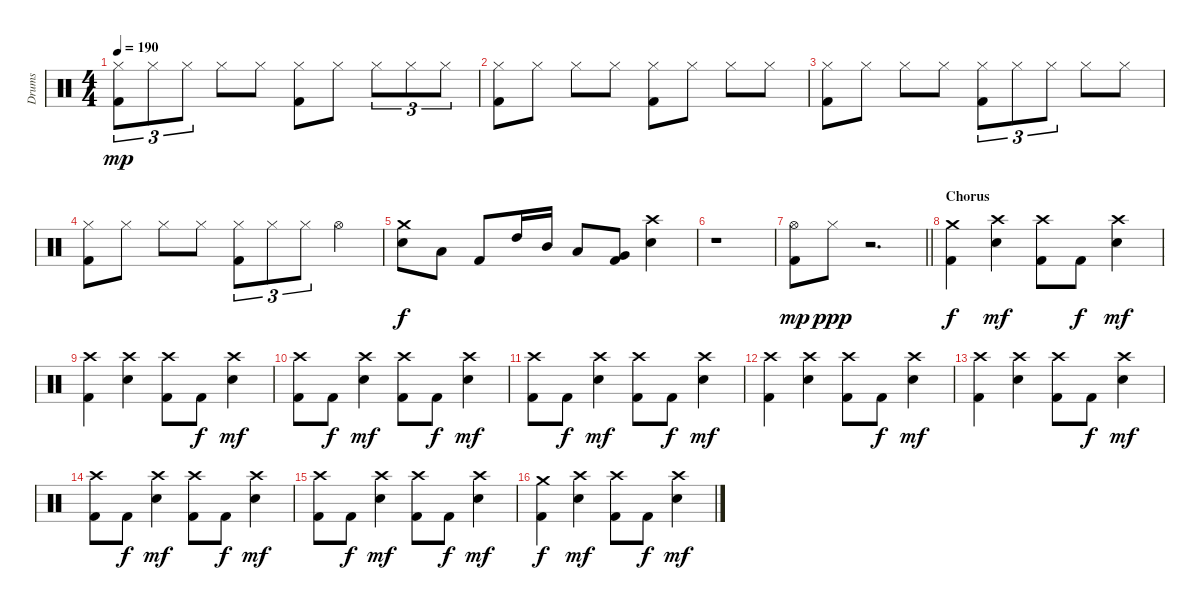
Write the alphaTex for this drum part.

\track ("Drums" "Drums") {instrument percussion}
\staff {score}
\articulation defaults
\ts (4 4)
\tempo 190
\clef neutral
\ks c
("Hi-Hat (closed)" "Kick (hit) 2").8{tu (3 2) dy mp} "Hi-Hat (closed)".8{tu (3 2)} "Hi-Hat (closed)".8{tu (3 2)} "Hi-Hat (closed)".8 "Hi-Hat (closed)".8 ("Hi-Hat (closed)" "Kick (hit) 2").8 "Hi-Hat (closed)".8 "Hi-Hat (closed)".8{tu (3 2)} "Hi-Hat (closed)".8{tu (3 2)} "Hi-Hat (closed)".8{tu (3 2)} |
("Hi-Hat (closed)" "Kick (hit) 2").8 "Hi-Hat (closed)".8 "Hi-Hat (closed)".8 "Hi-Hat (closed)".8 ("Hi-Hat (closed)" "Kick (hit) 2").8 "Hi-Hat (closed)".8 "Hi-Hat (closed)".8 "Hi-Hat (closed)".8 |
("Hi-Hat (closed)" "Kick (hit) 2").8 "Hi-Hat (closed)".8 "Hi-Hat (closed)".8 "Hi-Hat (closed)".8 ("Hi-Hat (closed)" "Kick (hit) 2").8{tu (3 2)} "Hi-Hat (closed)".8{tu (3 2)} "Hi-Hat (closed)".8{tu (3 2)} "Hi-Hat (closed)".8 "Hi-Hat (closed)".8 |
("Hi-Hat (closed)" "Kick (hit) 2").8 "Hi-Hat (closed)".8 "Hi-Hat (closed)".8 "Hi-Hat (closed)".8 ("Hi-Hat (closed)" "Kick (hit) 2").8{tu (3 2)} "Hi-Hat (closed)".8{tu (3 2)} "Hi-Hat (closed)".8{tu (3 2)} "Hi-Hat (open)".4 |
("Crash medium (hit)" "Snare (hit) 2").8{dy f} "Low Tom (hit)".8 "Kick (hit) 2".8 "High Tom (hit)".16 "Mid Tom (hit)".16 "Low Tom (hit)".8 ("Very Low Tom (hit)" "Kick (hit) 2").8 ("Crash high (hit)" "Snare (hit) 2").4 |
r.1 |
\barLineRight lightlight
("Hi-Hat (open)" "Kick (hit) 2").8{dy mp} "Hi-Hat (closed)".8{dy ppp} r.2{d} |
\section ("" "Chorus")
("Crash medium (hit)" "Kick (hit) 2").4{dy f} ("Crash high (hit)" "Snare (hit) 2").4{dy mf} ("Crash high (hit)" "Kick (hit) 2").8 "Kick (hit) 2".8{dy f} ("Crash high (hit)" "Snare (hit) 2").4{dy mf} |
("Crash high (hit)" "Kick (hit) 2").4 ("Crash high (hit)" "Snare (hit) 2").4 ("Crash high (hit)" "Kick (hit) 2").8 "Kick (hit) 2".8{dy f} ("Crash high (hit)" "Snare (hit) 2").4{dy mf} |
("Crash high (hit)" "Kick (hit) 2").8 "Kick (hit) 2".8{dy f} ("Crash high (hit)" "Snare (hit) 2").4{dy mf} ("Crash high (hit)" "Kick (hit) 2").8 "Kick (hit) 2".8{dy f} ("Crash high (hit)" "Snare (hit) 2").4{dy mf} |
("Crash high (hit)" "Kick (hit) 2").8 "Kick (hit) 2".8{dy f} ("Crash high (hit)" "Snare (hit) 2").4{dy mf} ("Crash high (hit)" "Kick (hit) 2").8 "Kick (hit) 2".8{dy f} ("Crash high (hit)" "Snare (hit) 2").4{dy mf} |
("Crash high (hit)" "Kick (hit) 2").4 ("Crash high (hit)" "Snare (hit) 2").4 ("Crash high (hit)" "Kick (hit) 2").8 "Kick (hit) 2".8{dy f} ("Crash high (hit)" "Snare (hit) 2").4{dy mf} |
("Crash high (hit)" "Kick (hit) 2").4 ("Crash high (hit)" "Snare (hit) 2").4 ("Crash high (hit)" "Kick (hit) 2").8 "Kick (hit) 2".8{dy f} ("Crash high (hit)" "Snare (hit) 2").4{dy mf} |
("Crash high (hit)" "Kick (hit) 2").8 "Kick (hit) 2".8{dy f} ("Crash high (hit)" "Snare (hit) 2").4{dy mf} ("Crash high (hit)" "Kick (hit) 2").8 "Kick (hit) 2".8{dy f} ("Crash high (hit)" "Snare (hit) 2").4{dy mf} |
("Crash high (hit)" "Kick (hit) 2").8 "Kick (hit) 2".8{dy f} ("Crash high (hit)" "Snare (hit) 2").4{dy mf} ("Crash high (hit)" "Kick (hit) 2").8 "Kick (hit) 2".8{dy f} ("Crash high (hit)" "Snare (hit) 2").4{dy mf} |
("Crash medium (hit)" "Kick (hit) 2").4{dy f} ("Crash high (hit)" "Snare (hit) 2").4{dy mf} ("Crash high (hit)" "Kick (hit) 2").8 "Kick (hit) 2".8{dy f} ("Crash high (hit)" "Snare (hit) 2").4{dy mf}
